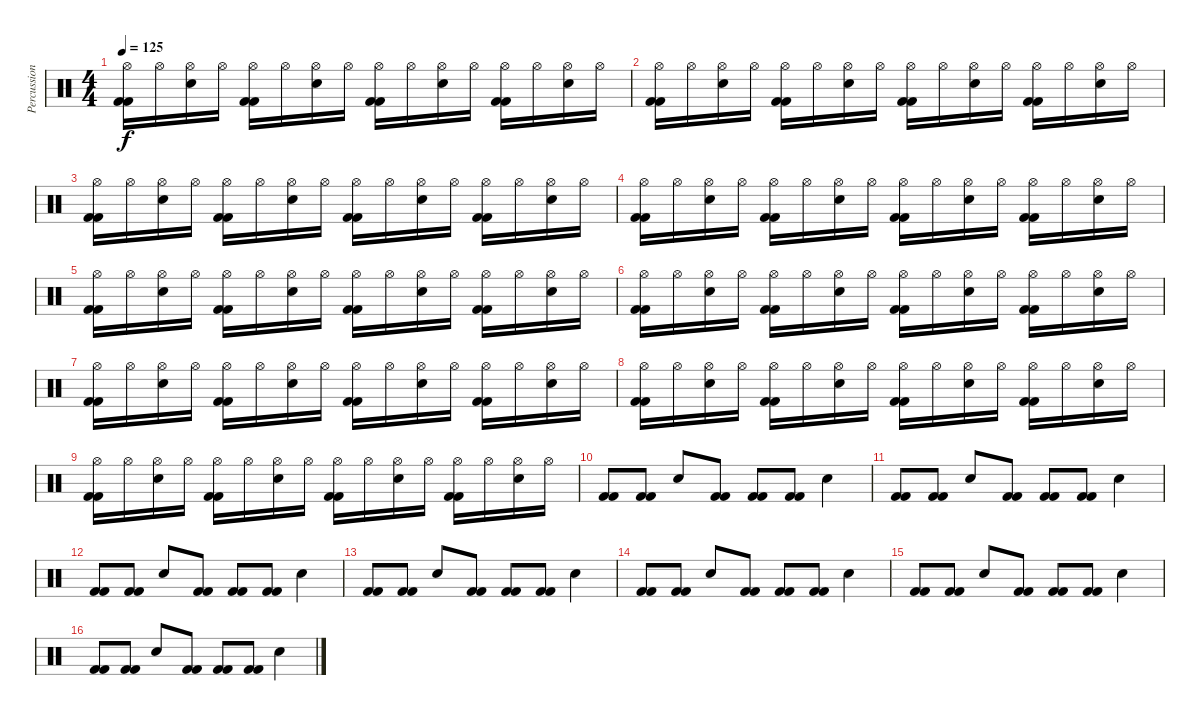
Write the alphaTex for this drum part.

\track ("Percussioni" "Percussion") {instrument percussion}
\staff {score}
\articulation defaults
\ts (4 4)
\tempo 125
\clef neutral
\ks c
("Hi-Hat (open)" "Kick (hit) 2" "Kick (hit) 2").16{dy f} "Hi-Hat (open)".16 ("Hi-Hat (open)" "Electric Snare (hit)").16 "Hi-Hat (open)".16 ("Hi-Hat (open)" "Kick (hit) 2" "Kick (hit) 2").16 "Hi-Hat (open)".16 ("Hi-Hat (open)" "Electric Snare (hit)").16 "Hi-Hat (open)".16 ("Hi-Hat (open)" "Kick (hit) 2" "Kick (hit) 2").16 "Hi-Hat (open)".16 ("Hi-Hat (open)" "Electric Snare (hit)").16 "Hi-Hat (open)".16 ("Hi-Hat (open)" "Kick (hit) 2" "Kick (hit) 2").16 "Hi-Hat (open)".16 ("Hi-Hat (open)" "Electric Snare (hit)").16 "Hi-Hat (open)".16 |
("Hi-Hat (open)" "Kick (hit) 2" "Kick (hit) 2").16 "Hi-Hat (open)".16 ("Hi-Hat (open)" "Electric Snare (hit)").16 "Hi-Hat (open)".16 ("Hi-Hat (open)" "Kick (hit) 2" "Kick (hit) 2").16 "Hi-Hat (open)".16 ("Hi-Hat (open)" "Electric Snare (hit)").16 "Hi-Hat (open)".16 ("Hi-Hat (open)" "Kick (hit) 2" "Kick (hit) 2").16 "Hi-Hat (open)".16 ("Hi-Hat (open)" "Electric Snare (hit)").16 "Hi-Hat (open)".16 ("Hi-Hat (open)" "Kick (hit) 2" "Kick (hit) 2").16 "Hi-Hat (open)".16 ("Hi-Hat (open)" "Electric Snare (hit)").16 "Hi-Hat (open)".16 |
("Hi-Hat (open)" "Kick (hit) 2" "Kick (hit) 2").16 "Hi-Hat (open)".16 ("Hi-Hat (open)" "Electric Snare (hit)").16 "Hi-Hat (open)".16 ("Hi-Hat (open)" "Kick (hit) 2" "Kick (hit) 2").16 "Hi-Hat (open)".16 ("Hi-Hat (open)" "Electric Snare (hit)").16 "Hi-Hat (open)".16 ("Hi-Hat (open)" "Kick (hit) 2" "Kick (hit) 2").16 "Hi-Hat (open)".16 ("Hi-Hat (open)" "Electric Snare (hit)").16 "Hi-Hat (open)".16 ("Hi-Hat (open)" "Kick (hit) 2" "Kick (hit) 2").16 "Hi-Hat (open)".16 ("Hi-Hat (open)" "Electric Snare (hit)").16 "Hi-Hat (open)".16 |
("Hi-Hat (open)" "Kick (hit) 2" "Kick (hit) 2").16 "Hi-Hat (open)".16 ("Hi-Hat (open)" "Electric Snare (hit)").16 "Hi-Hat (open)".16 ("Hi-Hat (open)" "Kick (hit) 2" "Kick (hit) 2").16 "Hi-Hat (open)".16 ("Hi-Hat (open)" "Electric Snare (hit)").16 "Hi-Hat (open)".16 ("Hi-Hat (open)" "Kick (hit) 2" "Kick (hit) 2").16 "Hi-Hat (open)".16 ("Hi-Hat (open)" "Electric Snare (hit)").16 "Hi-Hat (open)".16 ("Hi-Hat (open)" "Kick (hit) 2" "Kick (hit) 2").16 "Hi-Hat (open)".16 ("Hi-Hat (open)" "Electric Snare (hit)").16 "Hi-Hat (open)".16 |
("Hi-Hat (open)" "Kick (hit) 2" "Kick (hit) 2").16 "Hi-Hat (open)".16 ("Hi-Hat (open)" "Electric Snare (hit)").16 "Hi-Hat (open)".16 ("Hi-Hat (open)" "Kick (hit) 2" "Kick (hit) 2").16 "Hi-Hat (open)".16 ("Hi-Hat (open)" "Electric Snare (hit)").16 "Hi-Hat (open)".16 ("Hi-Hat (open)" "Kick (hit) 2" "Kick (hit) 2").16 "Hi-Hat (open)".16 ("Hi-Hat (open)" "Electric Snare (hit)").16 "Hi-Hat (open)".16 ("Hi-Hat (open)" "Kick (hit) 2" "Kick (hit) 2").16 "Hi-Hat (open)".16 ("Hi-Hat (open)" "Electric Snare (hit)").16 "Hi-Hat (open)".16 |
("Hi-Hat (open)" "Kick (hit) 2" "Kick (hit) 2").16 "Hi-Hat (open)".16 ("Hi-Hat (open)" "Electric Snare (hit)").16 "Hi-Hat (open)".16 ("Hi-Hat (open)" "Kick (hit) 2" "Kick (hit) 2").16 "Hi-Hat (open)".16 ("Hi-Hat (open)" "Electric Snare (hit)").16 "Hi-Hat (open)".16 ("Hi-Hat (open)" "Kick (hit) 2" "Kick (hit) 2").16 "Hi-Hat (open)".16 ("Hi-Hat (open)" "Electric Snare (hit)").16 "Hi-Hat (open)".16 ("Hi-Hat (open)" "Kick (hit) 2" "Kick (hit) 2").16 "Hi-Hat (open)".16 ("Hi-Hat (open)" "Electric Snare (hit)").16 "Hi-Hat (open)".16 |
("Hi-Hat (open)" "Kick (hit) 2" "Kick (hit) 2").16 "Hi-Hat (open)".16 ("Hi-Hat (open)" "Electric Snare (hit)").16 "Hi-Hat (open)".16 ("Hi-Hat (open)" "Kick (hit) 2" "Kick (hit) 2").16 "Hi-Hat (open)".16 ("Hi-Hat (open)" "Electric Snare (hit)").16 "Hi-Hat (open)".16 ("Hi-Hat (open)" "Kick (hit) 2" "Kick (hit) 2").16 "Hi-Hat (open)".16 ("Hi-Hat (open)" "Electric Snare (hit)").16 "Hi-Hat (open)".16 ("Hi-Hat (open)" "Kick (hit) 2" "Kick (hit) 2").16 "Hi-Hat (open)".16 ("Hi-Hat (open)" "Electric Snare (hit)").16 "Hi-Hat (open)".16 |
("Hi-Hat (open)" "Kick (hit) 2" "Kick (hit) 2").16 "Hi-Hat (open)".16 ("Hi-Hat (open)" "Electric Snare (hit)").16 "Hi-Hat (open)".16 ("Hi-Hat (open)" "Kick (hit) 2" "Kick (hit) 2").16 "Hi-Hat (open)".16 ("Hi-Hat (open)" "Electric Snare (hit)").16 "Hi-Hat (open)".16 ("Hi-Hat (open)" "Kick (hit) 2" "Kick (hit) 2").16 "Hi-Hat (open)".16 ("Hi-Hat (open)" "Electric Snare (hit)").16 "Hi-Hat (open)".16 ("Hi-Hat (open)" "Kick (hit) 2" "Kick (hit) 2").16 "Hi-Hat (open)".16 ("Hi-Hat (open)" "Electric Snare (hit)").16 "Hi-Hat (open)".16 |
("Hi-Hat (open)" "Kick (hit) 2" "Kick (hit) 2").16 "Hi-Hat (open)".16 ("Hi-Hat (open)" "Electric Snare (hit)").16 "Hi-Hat (open)".16 ("Hi-Hat (open)" "Kick (hit) 2" "Kick (hit) 2").16 "Hi-Hat (open)".16 ("Hi-Hat (open)" "Electric Snare (hit)").16 "Hi-Hat (open)".16 ("Hi-Hat (open)" "Kick (hit) 2" "Kick (hit) 2").16 "Hi-Hat (open)".16 ("Hi-Hat (open)" "Electric Snare (hit)").16 "Hi-Hat (open)".16 ("Hi-Hat (open)" "Kick (hit) 2" "Kick (hit) 2").16 "Hi-Hat (open)".16 ("Hi-Hat (open)" "Electric Snare (hit)").16 "Hi-Hat (open)".16 |
("Kick (hit) 2" "Kick (hit) 2").8 ("Kick (hit) 2" "Kick (hit) 2").8 "Electric Snare (hit)".8 ("Kick (hit) 2" "Kick (hit) 2").8 ("Kick (hit) 2" "Kick (hit) 2").8 ("Kick (hit) 2" "Kick (hit) 2").8 "Electric Snare (hit)".4 |
("Kick (hit) 2" "Kick (hit) 2").8 ("Kick (hit) 2" "Kick (hit) 2").8 "Electric Snare (hit)".8 ("Kick (hit) 2" "Kick (hit) 2").8 ("Kick (hit) 2" "Kick (hit) 2").8 ("Kick (hit) 2" "Kick (hit) 2").8 "Electric Snare (hit)".4 |
("Kick (hit) 2" "Kick (hit) 2").8 ("Kick (hit) 2" "Kick (hit) 2").8 "Electric Snare (hit)".8 ("Kick (hit) 2" "Kick (hit) 2").8 ("Kick (hit) 2" "Kick (hit) 2").8 ("Kick (hit) 2" "Kick (hit) 2").8 "Electric Snare (hit)".4 |
("Kick (hit) 2" "Kick (hit) 2").8 ("Kick (hit) 2" "Kick (hit) 2").8 "Electric Snare (hit)".8 ("Kick (hit) 2" "Kick (hit) 2").8 ("Kick (hit) 2" "Kick (hit) 2").8 ("Kick (hit) 2" "Kick (hit) 2").8 "Electric Snare (hit)".4 |
("Kick (hit) 2" "Kick (hit) 2").8 ("Kick (hit) 2" "Kick (hit) 2").8 "Electric Snare (hit)".8 ("Kick (hit) 2" "Kick (hit) 2").8 ("Kick (hit) 2" "Kick (hit) 2").8 ("Kick (hit) 2" "Kick (hit) 2").8 "Electric Snare (hit)".4 |
("Kick (hit) 2" "Kick (hit) 2").8 ("Kick (hit) 2" "Kick (hit) 2").8 "Electric Snare (hit)".8 ("Kick (hit) 2" "Kick (hit) 2").8 ("Kick (hit) 2" "Kick (hit) 2").8 ("Kick (hit) 2" "Kick (hit) 2").8 "Electric Snare (hit)".4 |
("Kick (hit) 2" "Kick (hit) 2").8 ("Kick (hit) 2" "Kick (hit) 2").8 "Electric Snare (hit)".8 ("Kick (hit) 2" "Kick (hit) 2").8 ("Kick (hit) 2" "Kick (hit) 2").8 ("Kick (hit) 2" "Kick (hit) 2").8 "Electric Snare (hit)".4
